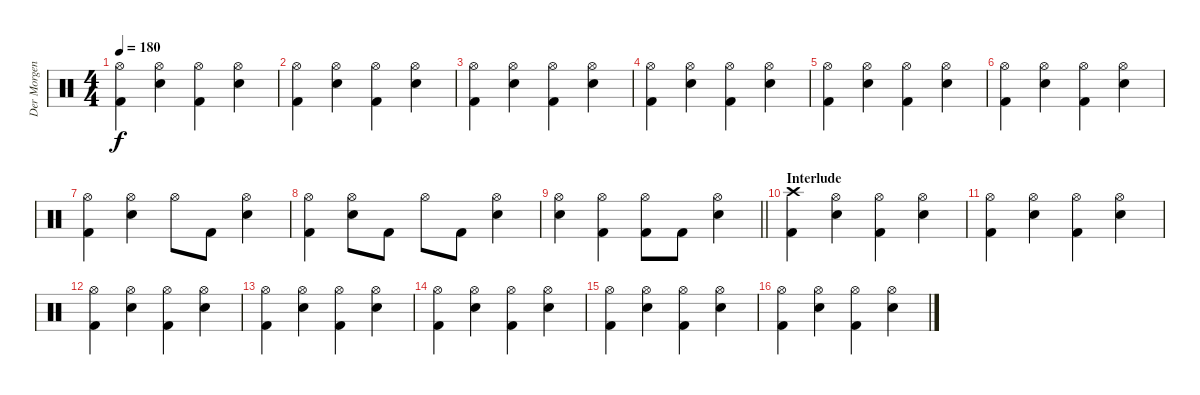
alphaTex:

\track ("Der Morgenstern" "Der Morgen") {instrument percussion}
\staff {score}
\articulation defaults
\ts (4 4)
\tempo 180
\clef neutral
\ks c
("Hi-Hat (open)" "Kick (hit) 2").4{dy f} ("Hi-Hat (open)" "Electric Snare (hit)").4 ("Hi-Hat (open)" "Kick (hit) 2").4 ("Hi-Hat (open)" "Electric Snare (hit)").4 |
("Hi-Hat (open)" "Kick (hit) 2").4 ("Hi-Hat (open)" "Electric Snare (hit)").4 ("Hi-Hat (open)" "Kick (hit) 2").4 ("Hi-Hat (open)" "Electric Snare (hit)").4 |
("Hi-Hat (open)" "Kick (hit) 2").4 ("Hi-Hat (open)" "Electric Snare (hit)").4 ("Hi-Hat (open)" "Kick (hit) 2").4 ("Hi-Hat (open)" "Electric Snare (hit)").4 |
("Hi-Hat (open)" "Kick (hit) 2").4 ("Hi-Hat (open)" "Electric Snare (hit)").4 ("Hi-Hat (open)" "Kick (hit) 2").4 ("Hi-Hat (open)" "Electric Snare (hit)").4 |
("Hi-Hat (open)" "Kick (hit) 2").4 ("Hi-Hat (open)" "Electric Snare (hit)").4 ("Hi-Hat (open)" "Kick (hit) 2").4 ("Hi-Hat (open)" "Electric Snare (hit)").4 |
("Hi-Hat (open)" "Kick (hit) 2").4 ("Hi-Hat (open)" "Electric Snare (hit)").4 ("Hi-Hat (open)" "Kick (hit) 2").4 ("Hi-Hat (open)" "Electric Snare (hit)").4 |
("Hi-Hat (open)" "Kick (hit) 2").4 ("Hi-Hat (open)" "Electric Snare (hit)").4 "Hi-Hat (open)".8 "Kick (hit) 2".8 ("Hi-Hat (open)" "Electric Snare (hit)").4 |
("Hi-Hat (open)" "Kick (hit) 2").4 ("Hi-Hat (open)" "Electric Snare (hit)").8 "Kick (hit) 2".8 "Hi-Hat (open)".8 "Kick (hit) 2".8 ("Hi-Hat (open)" "Electric Snare (hit)").4 |
\barLineRight lightlight
("Hi-Hat (open)" "Electric Snare (hit)").4 ("Hi-Hat (open)" "Kick (hit) 2").4 ("Hi-Hat (open)" "Kick (hit) 2").8 "Kick (hit) 2".8 ("Hi-Hat (open)" "Electric Snare (hit)").4 |
\section ("" "Interlude")
("Crash high (hit)" "Kick (hit) 2").4 ("Hi-Hat (open)" "Electric Snare (hit)").4 ("Hi-Hat (open)" "Kick (hit) 2").4 ("Hi-Hat (open)" "Electric Snare (hit)").4 |
("Hi-Hat (open)" "Kick (hit) 2").4 ("Hi-Hat (open)" "Electric Snare (hit)").4 ("Hi-Hat (open)" "Kick (hit) 2").4 ("Hi-Hat (open)" "Electric Snare (hit)").4 |
("Hi-Hat (open)" "Kick (hit) 2").4 ("Hi-Hat (open)" "Electric Snare (hit)").4 ("Hi-Hat (open)" "Kick (hit) 2").4 ("Hi-Hat (open)" "Electric Snare (hit)").4 |
("Hi-Hat (open)" "Kick (hit) 2").4 ("Hi-Hat (open)" "Electric Snare (hit)").4 ("Hi-Hat (open)" "Kick (hit) 2").4 ("Hi-Hat (open)" "Electric Snare (hit)").4 |
("Hi-Hat (open)" "Kick (hit) 2").4 ("Hi-Hat (open)" "Electric Snare (hit)").4 ("Hi-Hat (open)" "Kick (hit) 2").4 ("Hi-Hat (open)" "Electric Snare (hit)").4 |
("Hi-Hat (open)" "Kick (hit) 2").4 ("Hi-Hat (open)" "Electric Snare (hit)").4 ("Hi-Hat (open)" "Kick (hit) 2").4 ("Hi-Hat (open)" "Electric Snare (hit)").4 |
("Hi-Hat (open)" "Kick (hit) 2").4 ("Hi-Hat (open)" "Electric Snare (hit)").4 ("Hi-Hat (open)" "Kick (hit) 2").4 ("Hi-Hat (open)" "Electric Snare (hit)").4
